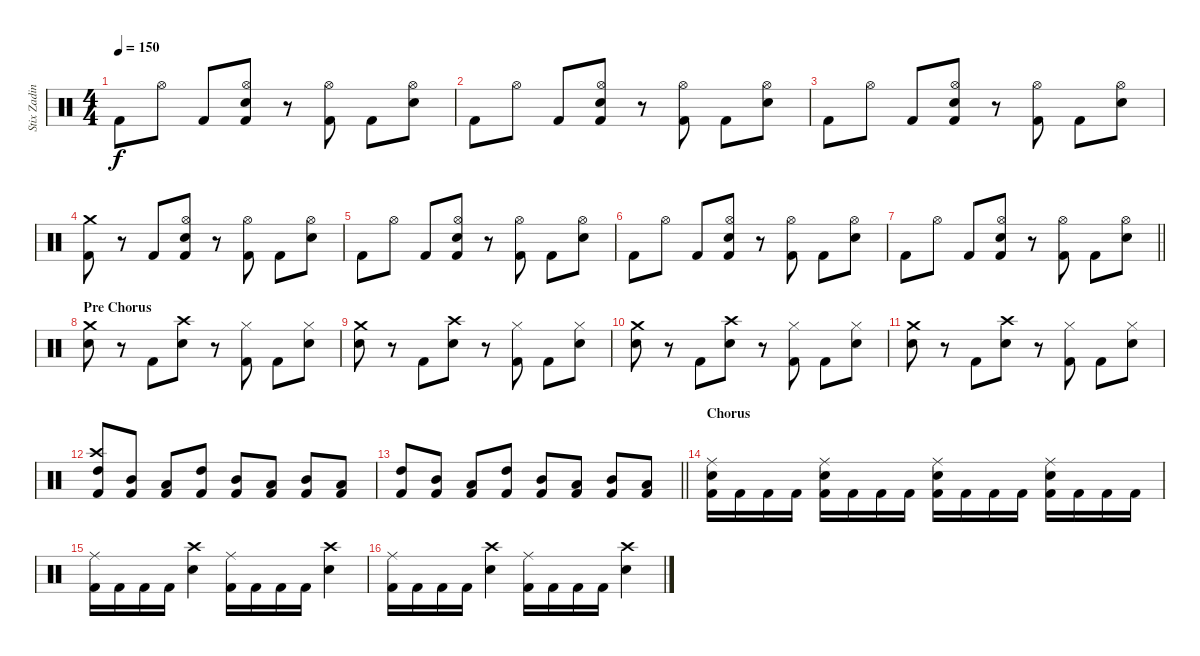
\track ("Stix Zadina" "Stix Zadin") {instrument percussion}
\staff {score}
\articulation defaults
\ts (4 4)
\tempo 150
\clef neutral
\ks c "Kick (hit) 2".8{dy f} "Hi-Hat (open)".8 "Kick (hit) 2".8
("Hi-Hat (open)" "Snare (hit) 2" "Kick (hit) 2").8 r.8 ("Hi-Hat (open)" "Kick (hit) 2").8 "Kick (hit) 2".8 ("Hi-Hat (open)" "Snare (hit) 2").8 |
"Kick (hit) 2".8 "Hi-Hat (open)".8 "Kick (hit) 2".8 ("Hi-Hat (open)" "Snare (hit) 2" "Kick (hit) 2").8 r.8 ("Hi-Hat (open)" "Kick (hit) 2").8 "Kick (hit) 2".8 ("Hi-Hat (open)" "Snare (hit) 2").8 |
"Kick (hit) 2".8 "Hi-Hat (open)".8 "Kick (hit) 2".8 ("Hi-Hat (open)" "Snare (hit) 2" "Kick (hit) 2").8 r.8 ("Hi-Hat (open)" "Kick (hit) 2").8 "Kick (hit) 2".8 ("Hi-Hat (open)" "Snare (hit) 2").8 |
("Crash medium (hit)" "Kick (hit) 2").8 r.8 "Kick (hit) 2".8 ("Hi-Hat (open)" "Snare (hit) 2" "Kick (hit) 2").8 r.8 ("Hi-Hat (open)" "Kick (hit) 2").8 "Kick (hit) 2".8 ("Hi-Hat (open)" "Snare (hit) 2").8 |
"Kick (hit) 2".8 "Hi-Hat (open)".8 "Kick (hit) 2".8 ("Hi-Hat (open)" "Snare (hit) 2" "Kick (hit) 2").8 r.8 ("Hi-Hat (open)" "Kick (hit) 2").8 "Kick (hit) 2".8 ("Hi-Hat (open)" "Snare (hit) 2").8 |
"Kick (hit) 2".8 "Hi-Hat (open)".8 "Kick (hit) 2".8 ("Hi-Hat (open)" "Snare (hit) 2" "Kick (hit) 2").8 r.8 ("Hi-Hat (open)" "Kick (hit) 2").8 "Kick (hit) 2".8 ("Hi-Hat (open)" "Snare (hit) 2").8 |
\barLineRight lightlight "Kick (hit) 2".8 "Hi-Hat (open)".8 "Kick (hit) 2".8
("Hi-Hat (open)" "Snare (hit) 2" "Kick (hit) 2").8 r.8 ("Hi-Hat (open)" "Kick (hit) 2").8 "Kick (hit) 2".8 ("Hi-Hat (open)" "Snare (hit) 2").8 |
\section ("" "Pre Chorus")
("Crash medium (hit)" "Snare (hit) 2").8 r.8 "Kick (hit) 2".8 ("Crash high (hit)" "Snare (hit) 2").8 r.8 ("Hi-Hat (closed)" "Kick (hit) 2").8 "Kick (hit) 2".8 ("Hi-Hat (closed)" "Snare (hit) 2").8 |
("Crash medium (hit)" "Snare (hit) 2").8 r.8 "Kick (hit) 2".8 ("Crash high (hit)" "Snare (hit) 2").8 r.8 ("Hi-Hat (closed)" "Kick (hit) 2").8 "Kick (hit) 2".8 ("Hi-Hat (closed)" "Snare (hit) 2").8 |
("Crash medium (hit)" "Snare (hit) 2").8 r.8 "Kick (hit) 2".8 ("Crash high (hit)" "Snare (hit) 2").8 r.8 ("Hi-Hat (closed)" "Kick (hit) 2").8 "Kick (hit) 2".8 ("Hi-Hat (closed)" "Snare (hit) 2").8 |
("Crash medium (hit)" "Snare (hit) 2").8 r.8 "Kick (hit) 2".8 ("Crash high (hit)" "Snare (hit) 2").8 r.8 ("Hi-Hat (closed)" "Kick (hit) 2").8 "Kick (hit) 2".8 ("Hi-Hat (closed)" "Snare (hit) 2").8 |
("Crash high (hit)" "High Tom (hit)" "Kick (hit) 2").8 ("Mid Tom (hit)" "Kick (hit) 2").8 ("Low Tom (hit)" "Kick (hit) 2").8 ("High Tom (hit)" "Kick (hit) 2").8 ("Mid Tom (hit)" "Kick (hit) 2").8 ("Low Tom (hit)" "Kick (hit) 2").8 ("Mid Tom (hit)" "Kick (hit) 2").8 ("Low Tom (hit)" "Kick (hit) 2").8 |
\barLineRight lightlight
("High Tom (hit)" "Kick (hit) 2").8 ("Mid Tom (hit)" "Kick (hit) 2").8 ("Low Tom (hit)" "Kick (hit) 2").8 ("High Tom (hit)" "Kick (hit) 2").8 ("Mid Tom (hit)" "Kick (hit) 2").8 ("Low Tom (hit)" "Kick (hit) 2").8 ("Mid Tom (hit)" "Kick (hit) 2").8 ("Low Tom (hit)" "Kick (hit) 2").8 |
\section ("" "Chorus")
("Ride (middle)" "Snare (hit) 2" "Kick (hit) 2").16 "Kick (hit) 2".16 "Kick (hit) 2".16 "Kick (hit) 2".16 ("Ride (middle)" "Snare (hit) 2" "Kick (hit) 2").16 "Kick (hit) 2".16 "Kick (hit) 2".16 "Kick (hit) 2".16 ("Ride (middle)" "Snare (hit) 2" "Kick (hit) 2").16 "Kick (hit) 2".16 "Kick (hit) 2".16 "Kick (hit) 2".16 ("Ride (middle)" "Snare (hit) 2" "Kick (hit) 2").16 "Kick (hit) 2".16 "Kick (hit) 2".16 "Kick (hit) 2".16 |
("Ride (middle)" "Kick (hit) 2").16 "Kick (hit) 2".16 "Kick (hit) 2".16 "Kick (hit) 2".16 ("Crash high (hit)" "Snare (hit) 2").4 ("Ride (middle)" "Kick (hit) 2").16 "Kick (hit) 2".16 "Kick (hit) 2".16 "Kick (hit) 2".16 ("Crash high (hit)" "Snare (hit) 2").4 |
("Ride (middle)" "Kick (hit) 2").16 "Kick (hit) 2".16 "Kick (hit) 2".16 "Kick (hit) 2".16 ("Crash high (hit)" "Snare (hit) 2").4 ("Ride (middle)" "Kick (hit) 2").16 "Kick (hit) 2".16 "Kick (hit) 2".16 "Kick (hit) 2".16 ("Crash high (hit)" "Snare (hit) 2").4
